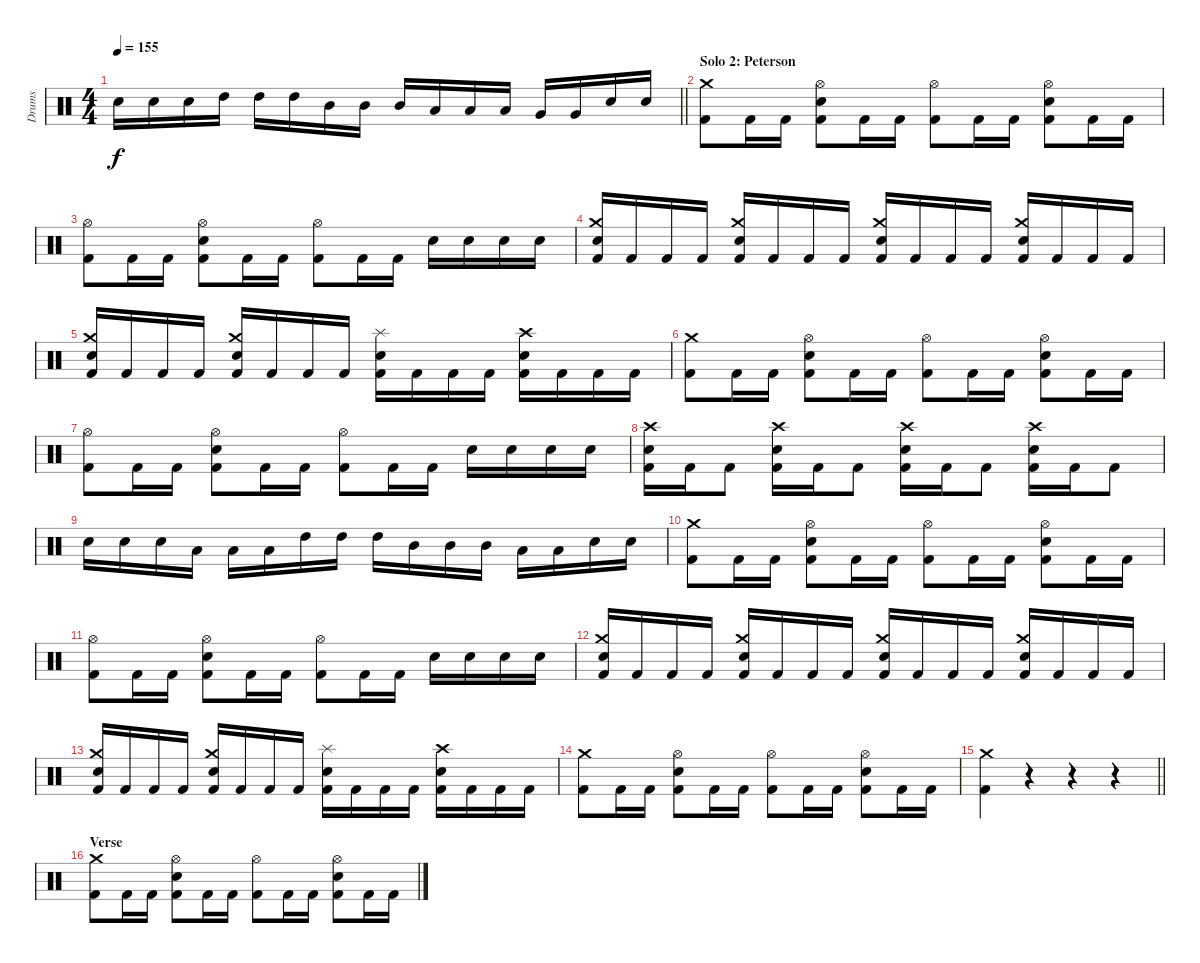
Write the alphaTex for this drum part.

\track ("Drums" "Drums") {instrument percussion}
\staff {score}
\articulation defaults
\ts (4 4)
\tempo 155
\clef neutral
\barLineRight lightlight
\ks c "Electric Snare (hit)".16{dy f} "Electric Snare (hit)".16 "Electric Snare (hit)".16 "High Tom (hit)".16 "High Tom (hit)".16 "High Tom (hit)".16 "Mid Tom (hit)".16 "Mid Tom (hit)".16 "Mid Tom (hit)".16 "Low Tom (hit)".16 "Low Tom (hit)".16 "Low Tom (hit)".16 "Very Low Tom (hit)".16 "Very Low Tom (hit)".16 "Electric Snare (hit)".16 "Electric Snare (hit)".16
|
\section ("" "Solo 2: Peterson")
("Crash medium (hit)" "Kick (hit) 2").8 "Kick (hit) 2".16 "Kick (hit) 2".16 ("Hi-Hat (open)" "Electric Snare (hit)" "Kick (hit) 2").8 "Kick (hit) 2".16 "Kick (hit) 2".16 ("Hi-Hat (open)" "Kick (hit) 2").8 "Kick (hit) 2".16 "Kick (hit) 2".16 ("Hi-Hat (open)" "Electric Snare (hit)" "Kick (hit) 2").8 "Kick (hit) 2".16 "Kick (hit) 2".16 |
("Hi-Hat (open)" "Kick (hit) 2").8 "Kick (hit) 2".16 "Kick (hit) 2".16 ("Hi-Hat (open)" "Electric Snare (hit)" "Kick (hit) 2").8 "Kick (hit) 2".16 "Kick (hit) 2".16 ("Hi-Hat (open)" "Kick (hit) 2").8 "Kick (hit) 2".16 "Kick (hit) 2".16 "Electric Snare (hit)".16 "Electric Snare (hit)".16 "Electric Snare (hit)".16 "Electric Snare (hit)".16 |
("Crash medium (hit)" "Electric Snare (hit)" "Kick (hit) 2").16 "Kick (hit) 2".16 "Kick (hit) 2".16 "Kick (hit) 2".16 ("Crash medium (hit)" "Electric Snare (hit)" "Kick (hit) 2").16 "Kick (hit) 2".16 "Kick (hit) 2".16 "Kick (hit) 2".16 ("Crash medium (hit)" "Electric Snare (hit)" "Kick (hit) 2").16 "Kick (hit) 2".16 "Kick (hit) 2".16 "Kick (hit) 2".16 ("Crash medium (hit)" "Electric Snare (hit)" "Kick (hit) 2").16 "Kick (hit) 2".16 "Kick (hit) 2".16 "Kick (hit) 2".16 |
("Crash medium (hit)" "Electric Snare (hit)" "Kick (hit) 2").16 "Kick (hit) 2".16 "Kick (hit) 2".16 "Kick (hit) 2".16 ("Crash medium (hit)" "Electric Snare (hit)" "Kick (hit) 2").16 "Kick (hit) 2".16 "Kick (hit) 2".16 "Kick (hit) 2".16 ("Splash (hit)" "Electric Snare (hit)" "Kick (hit) 2").16 "Kick (hit) 2".16 "Kick (hit) 2".16 "Kick (hit) 2".16 ("Crash high (hit)" "Electric Snare (hit)" "Kick (hit) 2").16 "Kick (hit) 2".16 "Kick (hit) 2".16 "Kick (hit) 2".16 |
("Crash medium (hit)" "Kick (hit) 2").8 "Kick (hit) 2".16 "Kick (hit) 2".16 ("Hi-Hat (open)" "Electric Snare (hit)" "Kick (hit) 2").8 "Kick (hit) 2".16 "Kick (hit) 2".16 ("Hi-Hat (open)" "Kick (hit) 2").8 "Kick (hit) 2".16 "Kick (hit) 2".16 ("Hi-Hat (open)" "Electric Snare (hit)" "Kick (hit) 2").8 "Kick (hit) 2".16 "Kick (hit) 2".16 |
("Hi-Hat (open)" "Kick (hit) 2").8 "Kick (hit) 2".16 "Kick (hit) 2".16 ("Hi-Hat (open)" "Electric Snare (hit)" "Kick (hit) 2").8 "Kick (hit) 2".16 "Kick (hit) 2".16 ("Hi-Hat (open)" "Kick (hit) 2").8 "Kick (hit) 2".16 "Kick (hit) 2".16 "Electric Snare (hit)".16 "Electric Snare (hit)".16 "Electric Snare (hit)".16 "Electric Snare (hit)".16 |
("Crash high (hit)" "Electric Snare (hit)" "Kick (hit) 2").16 "Kick (hit) 2".16 "Kick (hit) 2".8 ("Crash high (hit)" "Electric Snare (hit)" "Kick (hit) 2").16 "Kick (hit) 2".16 "Kick (hit) 2".8 ("Crash high (hit)" "Electric Snare (hit)" "Kick (hit) 2").16 "Kick (hit) 2".16 "Kick (hit) 2".8 ("Crash high (hit)" "Electric Snare (hit)" "Kick (hit) 2").16 "Kick (hit) 2".16 "Kick (hit) 2".8 |
"Electric Snare (hit)".16 "Electric Snare (hit)".16 "Electric Snare (hit)".16 "Low Tom (hit)".16 "Low Tom (hit)".16 "Low Tom (hit)".16 "High Tom (hit)".16 "High Tom (hit)".16 "High Tom (hit)".16 "Mid Tom (hit)".16 "Mid Tom (hit)".16 "Mid Tom (hit)".16 "Low Tom (hit)".16 "Low Tom (hit)".16 "Electric Snare (hit)".16 "Electric Snare (hit)".16 |
("Crash medium (hit)" "Kick (hit) 2").8 "Kick (hit) 2".16 "Kick (hit) 2".16 ("Hi-Hat (open)" "Electric Snare (hit)" "Kick (hit) 2").8 "Kick (hit) 2".16 "Kick (hit) 2".16 ("Hi-Hat (open)" "Kick (hit) 2").8 "Kick (hit) 2".16 "Kick (hit) 2".16 ("Hi-Hat (open)" "Electric Snare (hit)" "Kick (hit) 2").8 "Kick (hit) 2".16 "Kick (hit) 2".16 |
("Hi-Hat (open)" "Kick (hit) 2").8 "Kick (hit) 2".16 "Kick (hit) 2".16 ("Hi-Hat (open)" "Electric Snare (hit)" "Kick (hit) 2").8 "Kick (hit) 2".16 "Kick (hit) 2".16 ("Hi-Hat (open)" "Kick (hit) 2").8 "Kick (hit) 2".16 "Kick (hit) 2".16 "Electric Snare (hit)".16 "Electric Snare (hit)".16 "Electric Snare (hit)".16 "Electric Snare (hit)".16 |
("Crash medium (hit)" "Electric Snare (hit)" "Kick (hit) 2").16 "Kick (hit) 2".16 "Kick (hit) 2".16 "Kick (hit) 2".16 ("Crash medium (hit)" "Electric Snare (hit)" "Kick (hit) 2").16 "Kick (hit) 2".16 "Kick (hit) 2".16 "Kick (hit) 2".16 ("Crash medium (hit)" "Electric Snare (hit)" "Kick (hit) 2").16 "Kick (hit) 2".16 "Kick (hit) 2".16 "Kick (hit) 2".16 ("Crash medium (hit)" "Electric Snare (hit)" "Kick (hit) 2").16 "Kick (hit) 2".16 "Kick (hit) 2".16 "Kick (hit) 2".16 |
("Crash medium (hit)" "Electric Snare (hit)" "Kick (hit) 2").16 "Kick (hit) 2".16 "Kick (hit) 2".16 "Kick (hit) 2".16 ("Crash medium (hit)" "Electric Snare (hit)" "Kick (hit) 2").16 "Kick (hit) 2".16 "Kick (hit) 2".16 "Kick (hit) 2".16 ("Splash (hit)" "Electric Snare (hit)" "Kick (hit) 2").16 "Kick (hit) 2".16 "Kick (hit) 2".16 "Kick (hit) 2".16 ("Crash high (hit)" "Electric Snare (hit)" "Kick (hit) 2").16 "Kick (hit) 2".16 "Kick (hit) 2".16 "Kick (hit) 2".16 |
("Crash medium (hit)" "Kick (hit) 2").8 "Kick (hit) 2".16 "Kick (hit) 2".16 ("Hi-Hat (open)" "Electric Snare (hit)" "Kick (hit) 2").8 "Kick (hit) 2".16 "Kick (hit) 2".16 ("Hi-Hat (open)" "Kick (hit) 2").8 "Kick (hit) 2".16 "Kick (hit) 2".16 ("Hi-Hat (open)" "Electric Snare (hit)" "Kick (hit) 2").8 "Kick (hit) 2".16 "Kick (hit) 2".16 |
\barLineRight lightlight
("Crash medium (hit)" "Kick (hit) 2").4 r.4 r.4 r.4 |
\section ("" "Verse")
("Crash medium (hit)" "Kick (hit) 2").8 "Kick (hit) 2".16 "Kick (hit) 2".16 ("Hi-Hat (open)" "Electric Snare (hit)" "Kick (hit) 2").8 "Kick (hit) 2".16 "Kick (hit) 2".16 ("Hi-Hat (open)" "Kick (hit) 2").8 "Kick (hit) 2".16 "Kick (hit) 2".16 ("Hi-Hat (open)" "Electric Snare (hit)" "Kick (hit) 2").8 "Kick (hit) 2".16 "Kick (hit) 2".16
